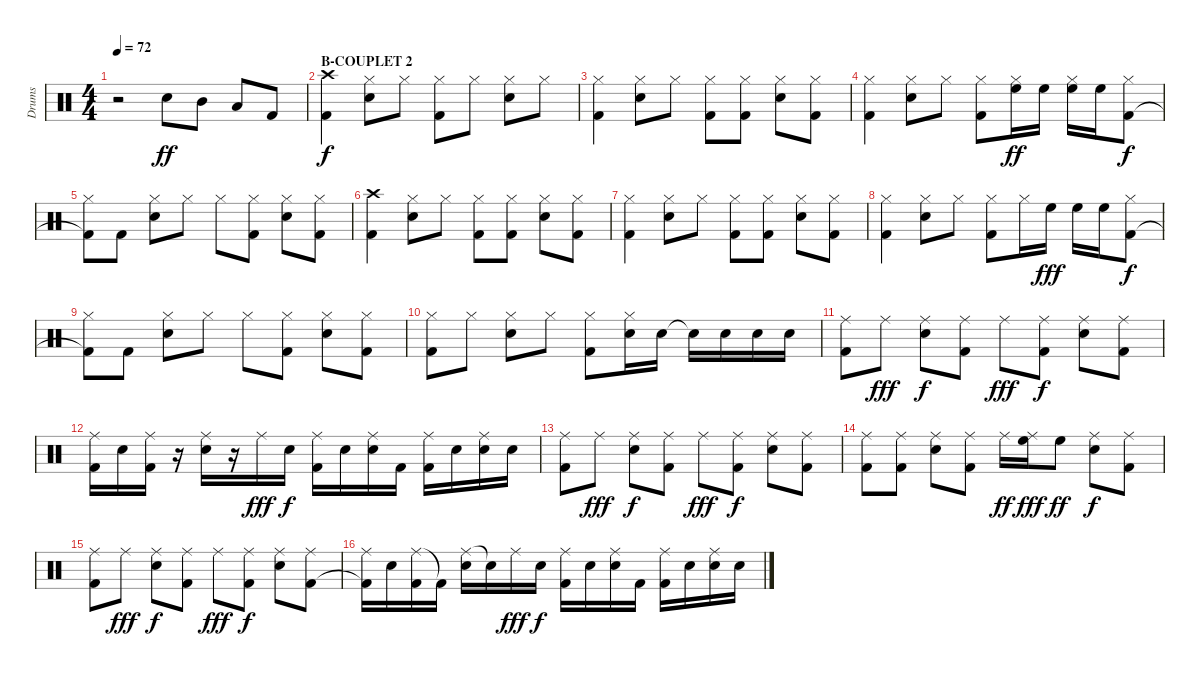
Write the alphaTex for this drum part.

\track ("Drums" "Drums") {instrument percussion}
\staff {score}
\articulation defaults
\ts (4 4)
\tempo 72
\clef neutral
\ks c
r.2{dy ff} "Snare (hit) 2".8 "Mid Tom (hit)".8 "Low Tom (hit)".8 "Kick (hit) 2".8 |
\section ("" "B-COUPLET 2")
("Crash high (hit)" "Kick (hit) 2").4{dy f} ("Hi-Hat (closed)" "Snare (hit) 2").8 "Hi-Hat (closed)".8 ("Hi-Hat (closed)" "Kick (hit) 2").8 "Hi-Hat (closed)".8 ("Hi-Hat (closed)" "Snare (hit) 2").8 "Hi-Hat (closed)".8 |
("Hi-Hat (closed)" "Kick (hit) 2").4 ("Hi-Hat (closed)" "Snare (hit) 2").8 "Hi-Hat (closed)".8 ("Hi-Hat (closed)" "Kick (hit) 2").8 ("Hi-Hat (closed)" "Kick (hit) 2").8 ("Hi-Hat (closed)" "Snare (hit) 2").8 ("Hi-Hat (closed)" "Kick (hit) 2").8 |
("Hi-Hat (closed)" "Kick (hit) 2").4 ("Hi-Hat (closed)" "Snare (hit) 2").8 "Hi-Hat (closed)".8 ("Hi-Hat (closed)" "Kick (hit) 2").8 ("Hi-Hat (closed)" "High Floor Tom (hit)").16{dy ff} "High Floor Tom (hit)".16 ("Hi-Hat (closed)" "High Floor Tom (hit)").16 "High Floor Tom (hit)".16 ("Hi-Hat (closed)" "Kick (hit) 2").8{dy f} |
("Hi-Hat (closed)" "Kick (hit) 2"{t}).8 "Kick (hit) 2".8 ("Hi-Hat (closed)" "Snare (hit) 2").8 "Hi-Hat (closed)".8 "Hi-Hat (closed)".8 ("Hi-Hat (closed)" "Kick (hit) 2").8 ("Hi-Hat (closed)" "Snare (hit) 2").8 ("Hi-Hat (closed)" "Kick (hit) 2").8 |
("Crash high (hit)" "Kick (hit) 2").4 ("Hi-Hat (closed)" "Snare (hit) 2").8 "Hi-Hat (closed)".8 ("Hi-Hat (closed)" "Kick (hit) 2").8 ("Hi-Hat (closed)" "Kick (hit) 2").8 ("Hi-Hat (closed)" "Snare (hit) 2").8 ("Hi-Hat (closed)" "Kick (hit) 2").8 |
("Hi-Hat (closed)" "Kick (hit) 2").4 ("Hi-Hat (closed)" "Snare (hit) 2").8 "Hi-Hat (closed)".8 ("Hi-Hat (closed)" "Kick (hit) 2").8 ("Hi-Hat (closed)" "Kick (hit) 2").8 ("Hi-Hat (closed)" "Snare (hit) 2").8 ("Hi-Hat (closed)" "Kick (hit) 2").8 |
("Hi-Hat (closed)" "Kick (hit) 2").4 ("Hi-Hat (closed)" "Snare (hit) 2").8 "Hi-Hat (closed)".8 ("Hi-Hat (closed)" "Kick (hit) 2").8 "Hi-Hat (closed)".16 "High Floor Tom (hit)".16{dy fff} "High Floor Tom (hit)".16 "High Floor Tom (hit)".16 ("Hi-Hat (closed)" "Kick (hit) 2").8{dy f} |
("Hi-Hat (closed)" "Kick (hit) 2"{t}).8 "Kick (hit) 2".8 ("Hi-Hat (closed)" "Snare (hit) 2").8 "Hi-Hat (closed)".8 "Hi-Hat (closed)".8 ("Hi-Hat (closed)" "Kick (hit) 2").8 ("Hi-Hat (closed)" "Snare (hit) 2").8 ("Hi-Hat (closed)" "Kick (hit) 2").8 |
("Hi-Hat (closed)" "Kick (hit) 2").8 "Hi-Hat (closed)".8 ("Hi-Hat (closed)" "Snare (hit) 2").8 "Hi-Hat (closed)".8 ("Hi-Hat (closed)" "Kick (hit) 2").8 ("Hi-Hat (closed)" "Snare (hit) 2").16 "Snare (hit) 2".16 "Snare (hit) 2"{t}.16 "Snare (hit) 2".16 "Snare (hit) 2".16 "Snare (hit) 2".16 |
("Ride (middle)" "Kick (hit) 2").8 "Ride (middle)".8{dy fff} ("Ride (middle)" "Snare (hit) 2").8{dy f} ("Ride (middle)" "Kick (hit) 2").8 "Ride (middle)".8{dy fff} ("Ride (middle)" "Kick (hit) 2").8{dy f} ("Ride (middle)" "Snare (hit) 2").8 ("Ride (middle)" "Kick (hit) 2").8 |
("Ride (middle)" "Kick (hit) 2").16 "Snare (hit) 2".16 ("Ride (middle)" "Kick (hit) 2").16 r.16 ("Ride (middle)" "Snare (hit) 2").16 r.16 "Ride (middle)".16{dy fff} "Snare (hit) 2".16{dy f} ("Ride (middle)" "Kick (hit) 2").16 "Snare (hit) 2".16 ("Ride (middle)" "Snare (hit) 2").16 "Kick (hit) 2".16 ("Ride (middle)" "Kick (hit) 2").16 "Snare (hit) 2".16 ("Ride (middle)" "Snare (hit) 2").16 "Snare (hit) 2".16 |
("Ride (middle)" "Kick (hit) 2").8 "Ride (middle)".8{dy fff} ("Ride (middle)" "Snare (hit) 2").8{dy f} ("Ride (middle)" "Kick (hit) 2").8 "Ride (middle)".8{dy fff} ("Ride (middle)" "Kick (hit) 2").8{dy f} ("Ride (middle)" "Snare (hit) 2").8 ("Ride (middle)" "Kick (hit) 2").8 |
("Ride (middle)" "Kick (hit) 2").8 ("Ride (middle)" "Kick (hit) 2").8 ("Ride (middle)" "Snare (hit) 2").8 ("Ride (middle)" "Kick (hit) 2").8 "Ride (middle)".16{dy ff} ("Ride (middle)" "High Floor Tom (hit)").16{dy fff} "High Floor Tom (hit)".8{dy ff} ("Ride (middle)" "Snare (hit) 2").8{dy f} ("Ride (middle)" "Kick (hit) 2").8 |
("Ride (middle)" "Kick (hit) 2").8 "Ride (middle)".8{dy fff} ("Ride (middle)" "Snare (hit) 2").8{dy f} ("Ride (middle)" "Kick (hit) 2").8 "Ride (middle)".8{dy fff} ("Ride (middle)" "Kick (hit) 2").8{dy f} ("Ride (middle)" "Snare (hit) 2").8 ("Ride (middle)" "Kick (hit) 2").8 |
("Ride (middle)" "Kick (hit) 2"{t}).16 "Snare (hit) 2".16 ("Ride (middle)" "Kick (hit) 2").16 "Kick (hit) 2"{t}.16 ("Ride (middle)" "Snare (hit) 2").16 "Snare (hit) 2"{t}.16 "Ride (middle)".16{dy fff} "Snare (hit) 2".16{dy f} ("Ride (middle)" "Kick (hit) 2").16 "Snare (hit) 2".16 ("Ride (middle)" "Snare (hit) 2").16 "Kick (hit) 2".16 ("Ride (middle)" "Kick (hit) 2").16 "Snare (hit) 2".16 ("Ride (middle)" "Snare (hit) 2").16 "Snare (hit) 2".16
